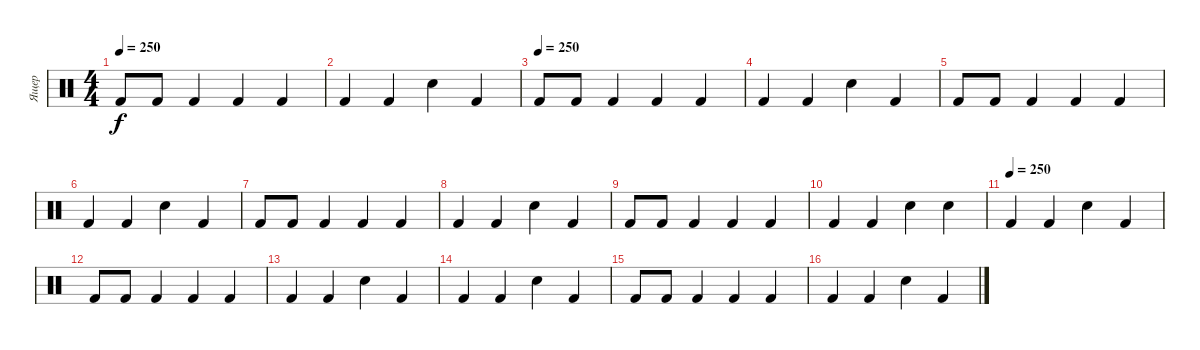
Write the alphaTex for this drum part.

\track ("Ящер" "Ящер") {instrument percussion}
\staff {score}
\articulation defaults
\ts (4 4)
\tempo 250
\clef neutral
\ks c "Kick (hit) 2".8{dy f} "Kick (hit) 2".8 "Kick (hit) 2".4 "Kick (hit) 2".4 "Kick (hit) 2".4
|
"Kick (hit) 2".4 "Kick (hit) 2".4 "Snare (hit) 2".4 "Kick (hit) 2".4 |
\tempo (250)
"Kick (hit) 2".8 "Kick (hit) 2".8 "Kick (hit) 2".4 "Kick (hit) 2".4 "Kick (hit) 2".4 |
"Kick (hit) 2".4 "Kick (hit) 2".4 "Snare (hit) 2".4 "Kick (hit) 2".4 |
"Kick (hit) 2".8 "Kick (hit) 2".8 "Kick (hit) 2".4 "Kick (hit) 2".4 "Kick (hit) 2".4 |
"Kick (hit) 2".4 "Kick (hit) 2".4 "Snare (hit) 2".4 "Kick (hit) 2".4 |
"Kick (hit) 2".8 "Kick (hit) 2".8 "Kick (hit) 2".4 "Kick (hit) 2".4 "Kick (hit) 2".4 |
"Kick (hit) 2".4 "Kick (hit) 2".4 "Snare (hit) 2".4 "Kick (hit) 2".4 |
"Kick (hit) 2".8 "Kick (hit) 2".8 "Kick (hit) 2".4 "Kick (hit) 2".4 "Kick (hit) 2".4 |
"Kick (hit) 2".4 "Kick (hit) 2".4 "Snare (hit) 2".4 "Snare (hit) 2".4 |
\tempo (250)
"Kick (hit) 2".4 "Kick (hit) 2".4 "Snare (hit) 2".4 "Kick (hit) 2".4 |
"Kick (hit) 2".8 "Kick (hit) 2".8 "Kick (hit) 2".4 "Kick (hit) 2".4 "Kick (hit) 2".4 |
"Kick (hit) 2".4 "Kick (hit) 2".4 "Snare (hit) 2".4 "Kick (hit) 2".4 |
"Kick (hit) 2".4 "Kick (hit) 2".4 "Snare (hit) 2".4 "Kick (hit) 2".4 |
"Kick (hit) 2".8 "Kick (hit) 2".8 "Kick (hit) 2".4 "Kick (hit) 2".4 "Kick (hit) 2".4 |
"Kick (hit) 2".4 "Kick (hit) 2".4 "Snare (hit) 2".4 "Kick (hit) 2".4
